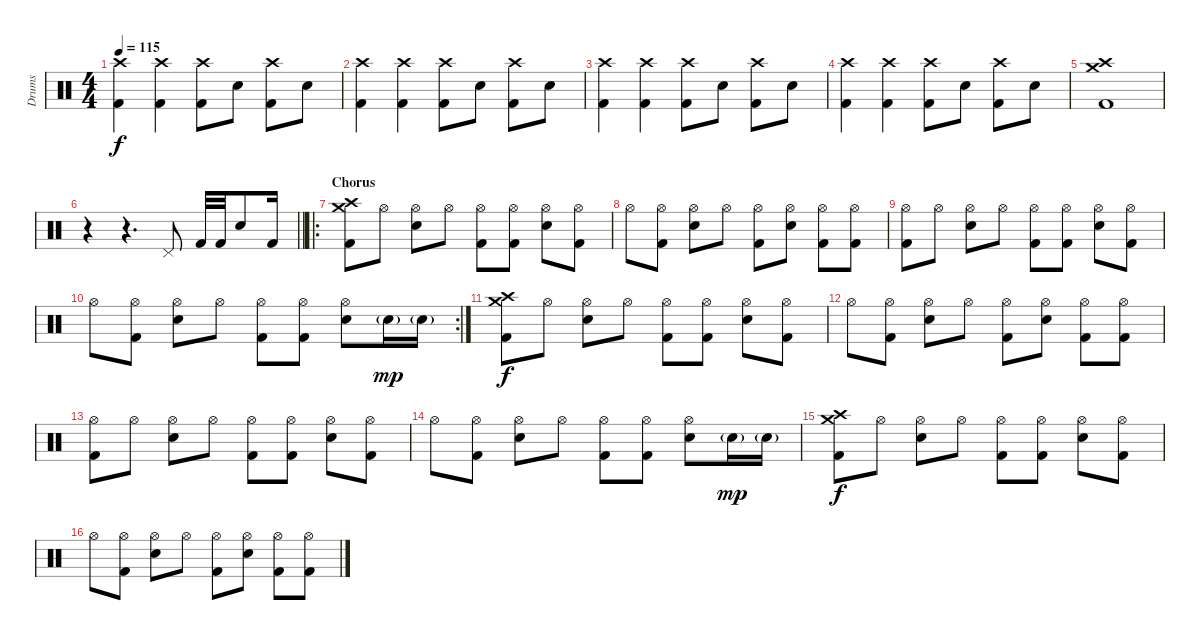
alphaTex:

\track ("Drums" "Drums") {instrument percussion}
\staff {score}
\articulation defaults
\ts (4 4)
\tempo 115
\clef neutral
\ks c
("Crash high (hit)" "Kick (hit) 2").4{dy f} ("Crash high (hit)" "Kick (hit) 2").4 ("Crash high (hit)" "Kick (hit) 2").8 "Electric Snare (hit)".8 ("Crash high (hit)" "Kick (hit) 2").8 "Electric Snare (hit)".8 |
("Crash high (hit)" "Kick (hit) 2").4 ("Crash high (hit)" "Kick (hit) 2").4 ("Crash high (hit)" "Kick (hit) 2").8 "Electric Snare (hit)".8 ("Crash high (hit)" "Kick (hit) 2").8 "Electric Snare (hit)".8 |
("Crash high (hit)" "Kick (hit) 2").4 ("Crash high (hit)" "Kick (hit) 2").4 ("Crash high (hit)" "Kick (hit) 2").8 "Electric Snare (hit)".8 ("Crash high (hit)" "Kick (hit) 2").8 "Electric Snare (hit)".8 |
("Crash high (hit)" "Kick (hit) 2").4 ("Crash high (hit)" "Kick (hit) 2").4 ("Crash high (hit)" "Kick (hit) 2").8 "Electric Snare (hit)".8 ("Crash high (hit)" "Kick (hit) 2").8 "Electric Snare (hit)".8 |
("Crash high (hit)" "Crash medium (hit)" "Kick (hit) 2").1 |
\barLineRight lightlight
r.4 r.4{d} "Pedal Hi-Hat (hit)".8 "Kick (hit) 2".32 "Kick (hit) 2".32 "Electric Snare (hit)".8 "Kick (hit) 2".16 |
\ro
\section ("" "Chorus")
("Crash high (hit)" "Crash medium (hit)" "Kick (hit) 2").8 "Hi-Hat (open)".8 ("Hi-Hat (open)" "Electric Snare (hit)").8 "Hi-Hat (open)".8 ("Hi-Hat (open)" "Kick (hit) 2").8 ("Hi-Hat (open)" "Kick (hit) 2").8 ("Hi-Hat (open)" "Electric Snare (hit)").8 ("Hi-Hat (open)" "Kick (hit) 2").8 |
"Hi-Hat (open)".8 ("Hi-Hat (open)" "Kick (hit) 2").8 ("Hi-Hat (open)" "Electric Snare (hit)").8 "Hi-Hat (open)".8 ("Hi-Hat (open)" "Kick (hit) 2").8 ("Hi-Hat (open)" "Electric Snare (hit)").8 ("Hi-Hat (open)" "Kick (hit) 2").8 ("Hi-Hat (open)" "Kick (hit) 2").8 |
("Hi-Hat (open)" "Kick (hit) 2").8 "Hi-Hat (open)".8 ("Hi-Hat (open)" "Electric Snare (hit)").8 "Hi-Hat (open)".8 ("Hi-Hat (open)" "Kick (hit) 2").8 ("Hi-Hat (open)" "Kick (hit) 2").8 ("Hi-Hat (open)" "Electric Snare (hit)").8 ("Hi-Hat (open)" "Kick (hit) 2").8 |
\rc 2 "Hi-Hat (open)".8
("Hi-Hat (open)" "Kick (hit) 2").8 ("Hi-Hat (open)" "Electric Snare (hit)").8 "Hi-Hat (open)".8 ("Hi-Hat (open)" "Kick (hit) 2").8 ("Hi-Hat (open)" "Kick (hit) 2").8 ("Hi-Hat (open)" "Electric Snare (hit)").8 "Electric Snare (hit)"{g}.16{dy mp} "Electric Snare (hit)"{g}.16 |
("Crash high (hit)" "Crash medium (hit)" "Kick (hit) 2").8{dy f} "Hi-Hat (open)".8 ("Hi-Hat (open)" "Electric Snare (hit)").8 "Hi-Hat (open)".8 ("Hi-Hat (open)" "Kick (hit) 2").8 ("Hi-Hat (open)" "Kick (hit) 2").8 ("Hi-Hat (open)" "Electric Snare (hit)").8 ("Hi-Hat (open)" "Kick (hit) 2").8 |
"Hi-Hat (open)".8 ("Hi-Hat (open)" "Kick (hit) 2").8 ("Hi-Hat (open)" "Electric Snare (hit)").8 "Hi-Hat (open)".8 ("Hi-Hat (open)" "Kick (hit) 2").8 ("Hi-Hat (open)" "Electric Snare (hit)").8 ("Hi-Hat (open)" "Kick (hit) 2").8 ("Hi-Hat (open)" "Kick (hit) 2").8 |
("Hi-Hat (open)" "Kick (hit) 2").8 "Hi-Hat (open)".8 ("Hi-Hat (open)" "Electric Snare (hit)").8 "Hi-Hat (open)".8 ("Hi-Hat (open)" "Kick (hit) 2").8 ("Hi-Hat (open)" "Kick (hit) 2").8 ("Hi-Hat (open)" "Electric Snare (hit)").8 ("Hi-Hat (open)" "Kick (hit) 2").8 |
"Hi-Hat (open)".8 ("Hi-Hat (open)" "Kick (hit) 2").8 ("Hi-Hat (open)" "Electric Snare (hit)").8 "Hi-Hat (open)".8 ("Hi-Hat (open)" "Kick (hit) 2").8 ("Hi-Hat (open)" "Kick (hit) 2").8 ("Hi-Hat (open)" "Electric Snare (hit)").8 "Electric Snare (hit)"{g}.16{dy mp} "Electric Snare (hit)"{g}.16 |
("Crash high (hit)" "Crash medium (hit)" "Kick (hit) 2").8{dy f} "Hi-Hat (open)".8 ("Hi-Hat (open)" "Electric Snare (hit)").8 "Hi-Hat (open)".8 ("Hi-Hat (open)" "Kick (hit) 2").8 ("Hi-Hat (open)" "Kick (hit) 2").8 ("Hi-Hat (open)" "Electric Snare (hit)").8 ("Hi-Hat (open)" "Kick (hit) 2").8 |
"Hi-Hat (open)".8 ("Hi-Hat (open)" "Kick (hit) 2").8 ("Hi-Hat (open)" "Electric Snare (hit)").8 "Hi-Hat (open)".8 ("Hi-Hat (open)" "Kick (hit) 2").8 ("Hi-Hat (open)" "Electric Snare (hit)").8 ("Hi-Hat (open)" "Kick (hit) 2").8 ("Hi-Hat (open)" "Kick (hit) 2").8
